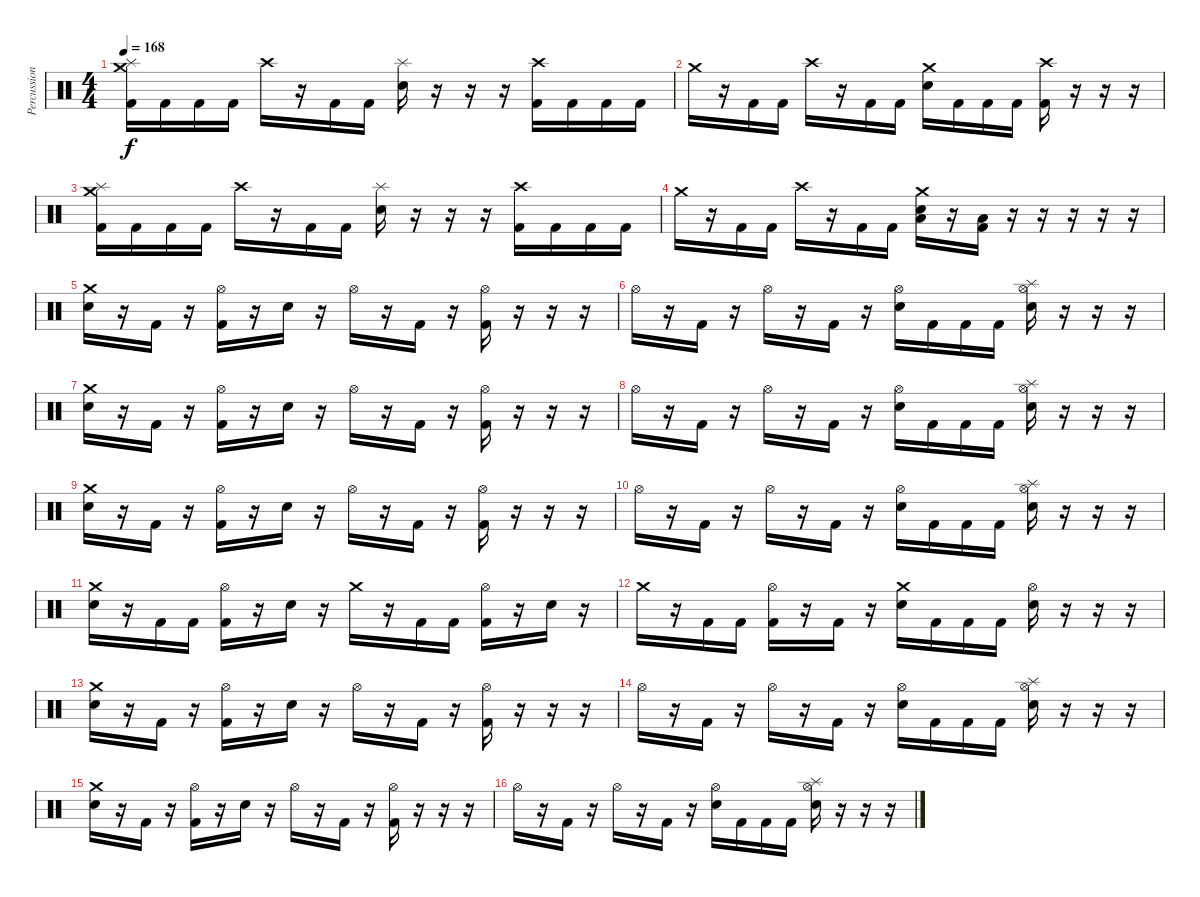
\track ("Percussion" "Percussion") {instrument percussion}
\staff {score}
\articulation defaults
\ts (4 4)
\tempo 168
\clef neutral
\ks c
("Splash (hit)" "Crash medium (hit)" "Kick (hit) 2").16{dy f} "Kick (hit) 2".16 "Kick (hit) 2".16 "Kick (hit) 2".16 "Crash high (hit)".16 r.16 "Kick (hit) 2".16 "Kick (hit) 2".16 ("Splash (hit)" "Electric Snare (hit)").16 r.16 r.16 r.16 ("Crash high (hit)" "Kick (hit) 2").16 "Kick (hit) 2".16 "Kick (hit) 2".16 "Kick (hit) 2".16 |
"Crash medium (hit)".16 r.16 "Kick (hit) 2".16 "Kick (hit) 2".16 "Crash high (hit)".16 r.16 "Kick (hit) 2".16 "Kick (hit) 2".16 ("Crash medium (hit)" "Electric Snare (hit)").16 "Kick (hit) 2".16 "Kick (hit) 2".16 "Kick (hit) 2".16 ("Crash high (hit)" "Kick (hit) 2").16 r.16 r.16 r.16 |
("Splash (hit)" "Crash medium (hit)" "Kick (hit) 2").16 "Kick (hit) 2".16 "Kick (hit) 2".16 "Kick (hit) 2".16 "Crash high (hit)".16 r.16 "Kick (hit) 2".16 "Kick (hit) 2".16 ("Splash (hit)" "Electric Snare (hit)").16 r.16 r.16 r.16 ("Crash high (hit)" "Kick (hit) 2").16 "Kick (hit) 2".16 "Kick (hit) 2".16 "Kick (hit) 2".16 |
"Crash medium (hit)".16 r.16 "Kick (hit) 2".16 "Kick (hit) 2".16 "Crash high (hit)".16 r.16 "Kick (hit) 2".16 "Kick (hit) 2".16 ("Crash medium (hit)" "Electric Snare (hit)" "Low Floor Tom (hit)").16 r.16 ("Low Floor Tom (hit)" "Kick (hit) 2").16 r.16 r.16 r.16 r.16 r.16 |
("Crash medium (hit)" "Electric Snare (hit)").16 r.16 "Kick (hit) 2".16 r.16 ("Hi-Hat (open)" "Kick (hit) 2").16 r.16 "Electric Snare (hit)".16 r.16 "Hi-Hat (open)".16 r.16 "Kick (hit) 2".16 r.16 ("Hi-Hat (open)" "Kick (hit) 2").16 r.16 r.16 r.16 |
"Hi-Hat (open)".16 r.16 "Kick (hit) 2".16 r.16 "Hi-Hat (open)".16 r.16 "Kick (hit) 2".16 r.16 ("Hi-Hat (open)" "Electric Snare (hit)").16 "Kick (hit) 2".16 "Kick (hit) 2".16 "Kick (hit) 2".16 ("Hi-Hat (open)" "Splash (hit)" "Electric Snare (hit)").16 r.16 r.16 r.16 |
("Crash medium (hit)" "Electric Snare (hit)").16 r.16 "Kick (hit) 2".16 r.16 ("Hi-Hat (open)" "Kick (hit) 2").16 r.16 "Electric Snare (hit)".16 r.16 "Hi-Hat (open)".16 r.16 "Kick (hit) 2".16 r.16 ("Hi-Hat (open)" "Kick (hit) 2").16 r.16 r.16 r.16 |
"Hi-Hat (open)".16 r.16 "Kick (hit) 2".16 r.16 "Hi-Hat (open)".16 r.16 "Kick (hit) 2".16 r.16 ("Hi-Hat (open)" "Electric Snare (hit)").16 "Kick (hit) 2".16 "Kick (hit) 2".16 "Kick (hit) 2".16 ("Hi-Hat (open)" "Splash (hit)" "Electric Snare (hit)").16 r.16 r.16 r.16 |
("Crash medium (hit)" "Electric Snare (hit)").16 r.16 "Kick (hit) 2".16 r.16 ("Hi-Hat (open)" "Kick (hit) 2").16 r.16 "Electric Snare (hit)".16 r.16 "Hi-Hat (open)".16 r.16 "Kick (hit) 2".16 r.16 ("Hi-Hat (open)" "Kick (hit) 2").16 r.16 r.16 r.16 |
"Hi-Hat (open)".16 r.16 "Kick (hit) 2".16 r.16 "Hi-Hat (open)".16 r.16 "Kick (hit) 2".16 r.16 ("Hi-Hat (open)" "Electric Snare (hit)").16 "Kick (hit) 2".16 "Kick (hit) 2".16 "Kick (hit) 2".16 ("Hi-Hat (open)" "Splash (hit)" "Electric Snare (hit)").16 r.16 r.16 r.16 |
("Crash medium (hit)" "Electric Snare (hit)").16 r.16 "Kick (hit) 2".16 "Kick (hit) 2".16 ("Hi-Hat (open)" "Kick (hit) 2").16 r.16 "Electric Snare (hit)".16 r.16 "Crash medium (hit)".16 r.16 "Kick (hit) 2".16 "Kick (hit) 2".16 ("Hi-Hat (open)" "Kick (hit) 2").16 r.16 "Electric Snare (hit)".16 r.16 |
"Crash medium (hit)".16 r.16 "Kick (hit) 2".16 "Kick (hit) 2".16 ("Hi-Hat (open)" "Kick (hit) 2").16 r.16 "Kick (hit) 2".16 r.16 ("Crash medium (hit)" "Electric Snare (hit)").16 "Kick (hit) 2".16 "Kick (hit) 2".16 "Kick (hit) 2".16 ("Hi-Hat (open)" "Electric Snare (hit)").16 r.16 r.16 r.16 |
("Crash medium (hit)" "Electric Snare (hit)").16 r.16 "Kick (hit) 2".16 r.16 ("Hi-Hat (open)" "Kick (hit) 2").16 r.16 "Electric Snare (hit)".16 r.16 "Hi-Hat (open)".16 r.16 "Kick (hit) 2".16 r.16 ("Hi-Hat (open)" "Kick (hit) 2").16 r.16 r.16 r.16 |
"Hi-Hat (open)".16 r.16 "Kick (hit) 2".16 r.16 "Hi-Hat (open)".16 r.16 "Kick (hit) 2".16 r.16 ("Hi-Hat (open)" "Electric Snare (hit)").16 "Kick (hit) 2".16 "Kick (hit) 2".16 "Kick (hit) 2".16 ("Hi-Hat (open)" "Splash (hit)" "Electric Snare (hit)").16 r.16 r.16 r.16 |
("Crash medium (hit)" "Electric Snare (hit)").16 r.16 "Kick (hit) 2".16 r.16 ("Hi-Hat (open)" "Kick (hit) 2").16 r.16 "Electric Snare (hit)".16 r.16 "Hi-Hat (open)".16 r.16 "Kick (hit) 2".16 r.16 ("Hi-Hat (open)" "Kick (hit) 2").16 r.16 r.16 r.16 |
"Hi-Hat (open)".16 r.16 "Kick (hit) 2".16 r.16 "Hi-Hat (open)".16 r.16 "Kick (hit) 2".16 r.16 ("Hi-Hat (open)" "Electric Snare (hit)").16 "Kick (hit) 2".16 "Kick (hit) 2".16 "Kick (hit) 2".16 ("Hi-Hat (open)" "Splash (hit)" "Electric Snare (hit)").16 r.16 r.16 r.16
